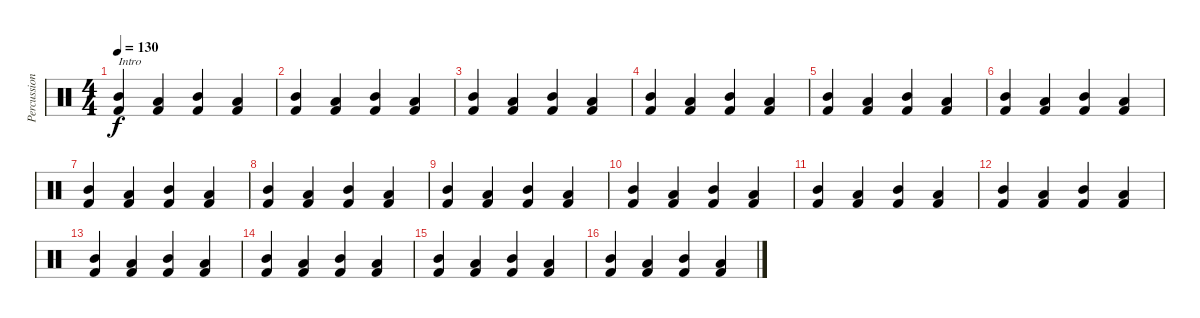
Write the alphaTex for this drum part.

\track ("Percussion" "Percussion") {instrument percussion}
\staff {score}
\articulation defaults
\ts (4 4)
\tempo 130
\clef neutral
\ks c
("Mid Tom (hit)" "Kick (hit) 2").4{txt "Intro" dy f} ("Low Tom (hit)" "Kick (hit) 2").4 ("Mid Tom (hit)" "Kick (hit) 2").4 ("Low Tom (hit)" "Kick (hit) 2").4 |
("Mid Tom (hit)" "Kick (hit) 2").4 ("Low Tom (hit)" "Kick (hit) 2").4 ("Mid Tom (hit)" "Kick (hit) 2").4 ("Low Tom (hit)" "Kick (hit) 2").4 |
("Mid Tom (hit)" "Kick (hit) 2").4 ("Low Tom (hit)" "Kick (hit) 2").4 ("Mid Tom (hit)" "Kick (hit) 2").4 ("Low Tom (hit)" "Kick (hit) 2").4 |
("Mid Tom (hit)" "Kick (hit) 2").4 ("Low Tom (hit)" "Kick (hit) 2").4 ("Mid Tom (hit)" "Kick (hit) 2").4 ("Low Tom (hit)" "Kick (hit) 2").4 |
("Mid Tom (hit)" "Kick (hit) 2").4 ("Low Tom (hit)" "Kick (hit) 2").4 ("Mid Tom (hit)" "Kick (hit) 2").4 ("Low Tom (hit)" "Kick (hit) 2").4 |
("Mid Tom (hit)" "Kick (hit) 2").4 ("Low Tom (hit)" "Kick (hit) 2").4 ("Mid Tom (hit)" "Kick (hit) 2").4 ("Low Tom (hit)" "Kick (hit) 2").4 |
("Mid Tom (hit)" "Kick (hit) 2").4 ("Low Tom (hit)" "Kick (hit) 2").4 ("Mid Tom (hit)" "Kick (hit) 2").4 ("Low Tom (hit)" "Kick (hit) 2").4 |
("Mid Tom (hit)" "Kick (hit) 2").4 ("Low Tom (hit)" "Kick (hit) 2").4 ("Mid Tom (hit)" "Kick (hit) 2").4 ("Low Tom (hit)" "Kick (hit) 2").4 |
("Mid Tom (hit)" "Kick (hit) 2").4 ("Low Tom (hit)" "Kick (hit) 2").4 ("Mid Tom (hit)" "Kick (hit) 2").4 ("Low Tom (hit)" "Kick (hit) 2").4 |
("Mid Tom (hit)" "Kick (hit) 2").4 ("Low Tom (hit)" "Kick (hit) 2").4 ("Mid Tom (hit)" "Kick (hit) 2").4 ("Low Tom (hit)" "Kick (hit) 2").4 |
("Mid Tom (hit)" "Kick (hit) 2").4 ("Low Tom (hit)" "Kick (hit) 2").4 ("Mid Tom (hit)" "Kick (hit) 2").4 ("Low Tom (hit)" "Kick (hit) 2").4 |
("Mid Tom (hit)" "Kick (hit) 2").4 ("Low Tom (hit)" "Kick (hit) 2").4 ("Mid Tom (hit)" "Kick (hit) 2").4 ("Low Tom (hit)" "Kick (hit) 2").4 |
("Mid Tom (hit)" "Kick (hit) 2").4 ("Low Tom (hit)" "Kick (hit) 2").4 ("Mid Tom (hit)" "Kick (hit) 2").4 ("Low Tom (hit)" "Kick (hit) 2").4 |
("Mid Tom (hit)" "Kick (hit) 2").4 ("Low Tom (hit)" "Kick (hit) 2").4 ("Mid Tom (hit)" "Kick (hit) 2").4 ("Low Tom (hit)" "Kick (hit) 2").4 |
("Mid Tom (hit)" "Kick (hit) 2").4 ("Low Tom (hit)" "Kick (hit) 2").4 ("Mid Tom (hit)" "Kick (hit) 2").4 ("Low Tom (hit)" "Kick (hit) 2").4 |
("Mid Tom (hit)" "Kick (hit) 2").4 ("Low Tom (hit)" "Kick (hit) 2").4 ("Mid Tom (hit)" "Kick (hit) 2").4 ("Low Tom (hit)" "Kick (hit) 2").4
